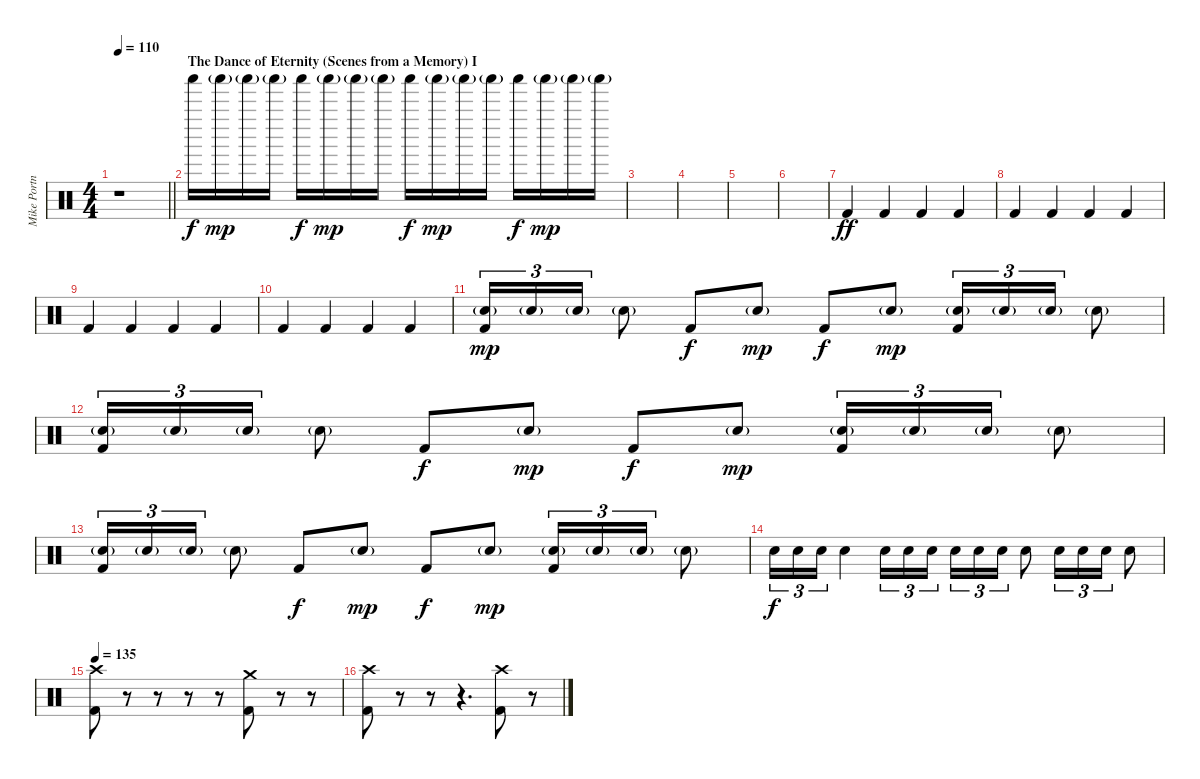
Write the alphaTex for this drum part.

\track ("Mike Portnoy Drums" "Mike Portn") {instrument percussion}
\staff {score}
\articulation defaults
\ts (4 4)
\tempo 110
\clef neutral
\barLineRight lightlight
\ks c
r.1{dy f volume 4} |
\section ("" "The Dance of Eternity (Scenes from a Memory) I")
"Shaker (hit)".16{volume 13} "Shaker (hit)"{g}.16{dy mp} "Shaker (hit)"{g}.16 "Shaker (hit)"{g}.16 "Shaker (hit)".16{dy f} "Shaker (hit)"{g}.16{dy mp} "Shaker (hit)"{g}.16 "Shaker (hit)"{g}.16 "Shaker (hit)".16{dy f} "Shaker (hit)"{g}.16{dy mp} "Shaker (hit)"{g}.16 "Shaker (hit)"{g}.16 "Shaker (hit)".16{dy f} "Shaker (hit)"{g}.16{dy mp} "Shaker (hit)"{g}.16 "Shaker (hit)"{g}.16 |
|
|
|
|
"Kick (hit) 2".4{dy ff} "Kick (hit) 2".4 "Kick (hit) 2".4 "Kick (hit) 2".4 |
"Kick (hit) 2".4 "Kick (hit) 2".4 "Kick (hit) 2".4 "Kick (hit) 2".4 |
"Kick (hit) 2".4 "Kick (hit) 2".4 "Kick (hit) 2".4 "Kick (hit) 2".4 |
"Kick (hit) 2".4 "Kick (hit) 2".4 "Kick (hit) 2".4 "Kick (hit) 2".4 |
("Snare (hit) 2"{g} "Kick (hit) 2").16{tu (3 2) dy mp volume 13} "Snare (hit) 2"{g}.16{tu (3 2)} "Snare (hit) 2"{g}.16{tu (3 2)} "Snare (hit) 2"{g}.8 "Kick (hit) 2".8{dy f} "Snare (hit) 2"{g}.8{dy mp} "Kick (hit) 2".8{dy f} "Snare (hit) 2"{g}.8{dy mp} ("Snare (hit) 2"{g} "Kick (hit) 2").16{tu (3 2)} "Snare (hit) 2"{g}.16{tu (3 2)} "Snare (hit) 2"{g}.16{tu (3 2)} "Snare (hit) 2"{g}.8 |
("Snare (hit) 2"{g} "Kick (hit) 2").16{tu (3 2)} "Snare (hit) 2"{g}.16{tu (3 2)} "Snare (hit) 2"{g}.16{tu (3 2)} "Snare (hit) 2"{g}.8 "Kick (hit) 2".8{dy f} "Snare (hit) 2"{g}.8{dy mp} "Kick (hit) 2".8{dy f} "Snare (hit) 2"{g}.8{dy mp} ("Snare (hit) 2"{g} "Kick (hit) 2").16{tu (3 2)} "Snare (hit) 2"{g}.16{tu (3 2)} "Snare (hit) 2"{g}.16{tu (3 2)} "Snare (hit) 2"{g}.8 |
("Snare (hit) 2"{g} "Kick (hit) 2").16{tu (3 2)} "Snare (hit) 2"{g}.16{tu (3 2)} "Snare (hit) 2"{g}.16{tu (3 2)} "Snare (hit) 2"{g}.8 "Kick (hit) 2".8{dy f} "Snare (hit) 2"{g}.8{dy mp} "Kick (hit) 2".8{dy f} "Snare (hit) 2"{g}.8{dy mp} ("Snare (hit) 2"{g} "Kick (hit) 2").16{tu (3 2)} "Snare (hit) 2"{g}.16{tu (3 2)} "Snare (hit) 2"{g}.16{tu (3 2)} "Snare (hit) 2"{g}.8 |
"Snare (hit) 2".16{tu (3 2) dy f} "Snare (hit) 2".16{tu (3 2)} "Snare (hit) 2".16{tu (3 2)} "Snare (hit) 2".4 "Snare (hit) 2".16{tu (3 2)} "Snare (hit) 2".16{tu (3 2)} "Snare (hit) 2".16{tu (3 2)} "Snare (hit) 2".16{tu (3 2)} "Snare (hit) 2".16{tu (3 2)} "Snare (hit) 2".16{tu (3 2)} "Snare (hit) 2".8 "Snare (hit) 2".16{tu (3 2)} "Snare (hit) 2".16{tu (3 2)} "Snare (hit) 2".16{tu (3 2)} "Snare (hit) 2".8 |
\tempo 135
("Crash high (hit)" "Kick (hit) 2").8 r.8 r.8 r.8 r.8 ("Crash medium (hit)" "Kick (hit) 2").8 r.8 r.8 |
("Crash high (hit)" "Kick (hit) 2").8 r.8 r.8 r.4{d} ("Crash high (hit)" "Kick (hit) 2").8 r.8
